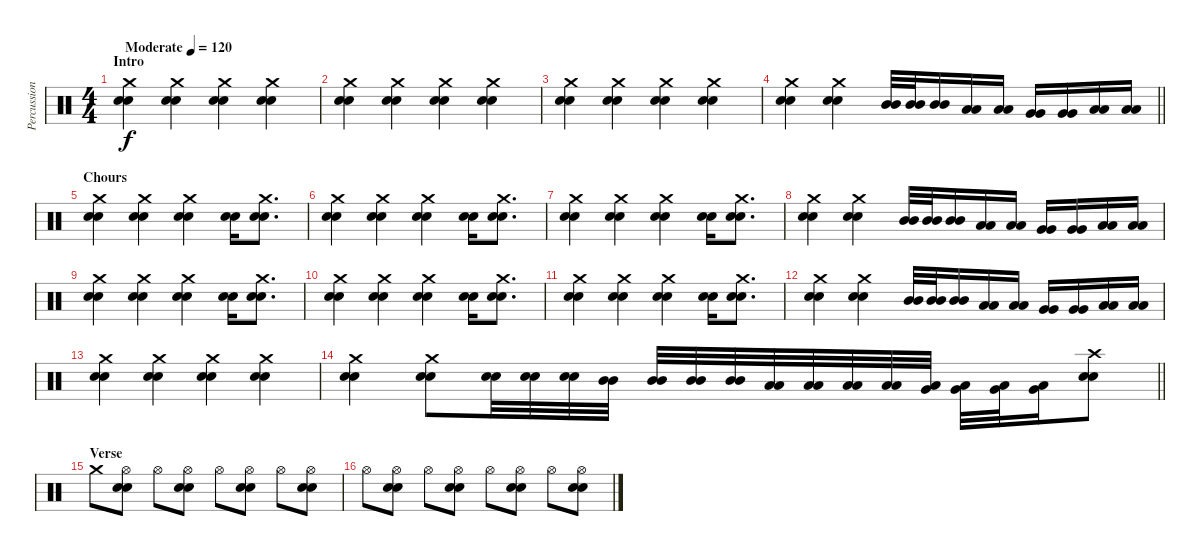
\track ("Percussioni" "Percussion") {instrument percussion}
\staff
\articulation defaults
\ts (4 4)
\section ("" "Intro")
\tempo (120 "Moderate")
\clef neutral
\ks c
("Crash medium (hit)" "Electric Snare (hit)" "Snare (hit) 2").4{dy f} ("Crash medium (hit)" "Electric Snare (hit)" "Snare (hit) 2").4 ("Crash medium (hit)" "Electric Snare (hit)" "Snare (hit) 2").4 ("Crash medium (hit)" "Electric Snare (hit)" "Snare (hit) 2").4 |
("Crash medium (hit)" "Electric Snare (hit)" "Snare (hit) 2").4 ("Crash medium (hit)" "Electric Snare (hit)" "Snare (hit) 2").4 ("Crash medium (hit)" "Electric Snare (hit)" "Snare (hit) 2").4 ("Crash medium (hit)" "Electric Snare (hit)" "Snare (hit) 2").4 |
("Crash medium (hit)" "Electric Snare (hit)" "Snare (hit) 2").4 ("Crash medium (hit)" "Electric Snare (hit)" "Snare (hit) 2").4 ("Crash medium (hit)" "Electric Snare (hit)" "Snare (hit) 2").4 ("Crash medium (hit)" "Electric Snare (hit)" "Snare (hit) 2").4 |
\barLineRight lightlight
("Crash medium (hit)" "Electric Snare (hit)" "Snare (hit) 2").4 ("Crash medium (hit)" "Electric Snare (hit)" "Snare (hit) 2").4 ("Mid Tom (hit)" "Mid Tom (hit)").32 ("Mid Tom (hit)" "Mid Tom (hit)").32 ("Mid Tom (hit)" "Mid Tom (hit)").16 ("Low Tom (hit)" "Low Tom (hit)").16 ("Low Tom (hit)" "Low Tom (hit)").16 ("Very Low Tom (hit)" "Very Low Tom (hit)").16 ("Very Low Tom (hit)" "Very Low Tom (hit)").16 ("Low Floor Tom (hit)" "Low Floor Tom (hit)").16 ("Low Floor Tom (hit)" "Low Floor Tom (hit)").16 |
\section ("" "Chours")
("Crash medium (hit)" "Electric Snare (hit)" "Snare (hit) 2").4 ("Crash medium (hit)" "Electric Snare (hit)" "Snare (hit) 2").4 ("Crash medium (hit)" "Electric Snare (hit)" "Snare (hit) 2").4 ("Electric Snare (hit)" "Snare (hit) 2").16 ("Crash medium (hit)" "Electric Snare (hit)" "Snare (hit) 2").8{d} |
("Crash medium (hit)" "Electric Snare (hit)" "Snare (hit) 2").4 ("Crash medium (hit)" "Electric Snare (hit)" "Snare (hit) 2").4 ("Crash medium (hit)" "Electric Snare (hit)" "Snare (hit) 2").4 ("Electric Snare (hit)" "Snare (hit) 2").16 ("Crash medium (hit)" "Electric Snare (hit)" "Snare (hit) 2").8{d} |
("Crash medium (hit)" "Electric Snare (hit)" "Snare (hit) 2").4 ("Crash medium (hit)" "Electric Snare (hit)" "Snare (hit) 2").4 ("Crash medium (hit)" "Electric Snare (hit)" "Snare (hit) 2").4 ("Electric Snare (hit)" "Snare (hit) 2").16 ("Crash medium (hit)" "Electric Snare (hit)" "Snare (hit) 2").8{d} |
("Crash medium (hit)" "Electric Snare (hit)" "Snare (hit) 2").4 ("Crash medium (hit)" "Electric Snare (hit)" "Snare (hit) 2").4 ("Mid Tom (hit)" "Mid Tom (hit)").32 ("Mid Tom (hit)" "Mid Tom (hit)").32 ("Mid Tom (hit)" "Mid Tom (hit)").16 ("Low Tom (hit)" "Low Tom (hit)").16 ("Low Tom (hit)" "Low Tom (hit)").16 ("Very Low Tom (hit)" "Very Low Tom (hit)").16 ("Very Low Tom (hit)" "Very Low Tom (hit)").16 ("Low Floor Tom (hit)" "Low Floor Tom (hit)").16 ("Low Floor Tom (hit)" "Low Floor Tom (hit)").16 |
("Crash medium (hit)" "Electric Snare (hit)" "Snare (hit) 2").4 ("Crash medium (hit)" "Electric Snare (hit)" "Snare (hit) 2").4 ("Crash medium (hit)" "Electric Snare (hit)" "Snare (hit) 2").4 ("Electric Snare (hit)" "Snare (hit) 2").16 ("Crash medium (hit)" "Electric Snare (hit)" "Snare (hit) 2").8{d} |
("Crash medium (hit)" "Electric Snare (hit)" "Snare (hit) 2").4 ("Crash medium (hit)" "Electric Snare (hit)" "Snare (hit) 2").4 ("Crash medium (hit)" "Electric Snare (hit)" "Snare (hit) 2").4 ("Electric Snare (hit)" "Snare (hit) 2").16 ("Crash medium (hit)" "Electric Snare (hit)" "Snare (hit) 2").8{d} |
("Crash medium (hit)" "Electric Snare (hit)" "Snare (hit) 2").4 ("Crash medium (hit)" "Electric Snare (hit)" "Snare (hit) 2").4 ("Crash medium (hit)" "Electric Snare (hit)" "Snare (hit) 2").4 ("Electric Snare (hit)" "Snare (hit) 2").16 ("Crash medium (hit)" "Electric Snare (hit)" "Snare (hit) 2").8{d} |
("Crash medium (hit)" "Electric Snare (hit)" "Snare (hit) 2").4 ("Crash medium (hit)" "Electric Snare (hit)" "Snare (hit) 2").4 ("Mid Tom (hit)" "Mid Tom (hit)").32 ("Mid Tom (hit)" "Mid Tom (hit)").32 ("Mid Tom (hit)" "Mid Tom (hit)").16 ("Low Tom (hit)" "Low Tom (hit)").16 ("Low Tom (hit)" "Low Tom (hit)").16 ("Very Low Tom (hit)" "Very Low Tom (hit)").16 ("Very Low Tom (hit)" "Very Low Tom (hit)").16 ("Low Floor Tom (hit)" "Low Floor Tom (hit)").16 ("Low Floor Tom (hit)" "Low Floor Tom (hit)").16 |
("Crash medium (hit)" "Electric Snare (hit)" "Snare (hit) 2").4 ("Crash medium (hit)" "Electric Snare (hit)" "Snare (hit) 2").4 ("Crash medium (hit)" "Electric Snare (hit)" "Snare (hit) 2").4 ("Crash medium (hit)" "Electric Snare (hit)" "Snare (hit) 2").4 |
\barLineRight lightlight
("Crash medium (hit)" "Electric Snare (hit)" "Snare (hit) 2").4 ("Crash medium (hit)" "Electric Snare (hit)" "Snare (hit) 2").8 ("Electric Snare (hit)" "Snare (hit) 2").32 ("Electric Snare (hit)" "Snare (hit) 2").32 ("Electric Snare (hit)" "Snare (hit) 2").32 ("Mid Tom (hit)" "Mid Tom (hit)").32 ("Mid Tom (hit)" "Mid Tom (hit)").32 ("Mid Tom (hit)" "Mid Tom (hit)").32 ("Mid Tom (hit)" "Mid Tom (hit)").32 ("Low Tom (hit)" "Low Tom (hit)").32 ("Low Tom (hit)" "Low Tom (hit)").32 ("Low Tom (hit)" "Low Tom (hit)").32 ("Low Tom (hit)" "Low Tom (hit)").32 ("Very Low Tom (hit)" "Low Floor Tom (hit)").32 ("Very Low Tom (hit)" "Low Floor Tom (hit)").32 ("Very Low Tom (hit)" "Low Floor Tom (hit)").32 ("Very Low Tom (hit)" "Low Floor Tom (hit)").16 ("Crash high (hit)" "Electric Snare (hit)" "Snare (hit) 2").8 |
\section ("" "Verse")
"Crash medium (hit)".8 ("Hi-Hat (open)" "Electric Snare (hit)" "Snare (hit) 2").8 "Hi-Hat (open)".8 ("Hi-Hat (open)" "Electric Snare (hit)" "Snare (hit) 2").8 "Hi-Hat (open)".8 ("Hi-Hat (open)" "Electric Snare (hit)" "Snare (hit) 2").8 "Hi-Hat (open)".8 ("Hi-Hat (open)" "Electric Snare (hit)" "Snare (hit) 2").8 |
"Hi-Hat (open)".8 ("Hi-Hat (open)" "Electric Snare (hit)" "Snare (hit) 2").8 "Hi-Hat (open)".8 ("Hi-Hat (open)" "Electric Snare (hit)" "Snare (hit) 2").8 "Hi-Hat (open)".8 ("Hi-Hat (open)" "Electric Snare (hit)" "Snare (hit) 2").8 "Hi-Hat (open)".8 ("Hi-Hat (open)" "Electric Snare (hit)" "Snare (hit) 2").8
